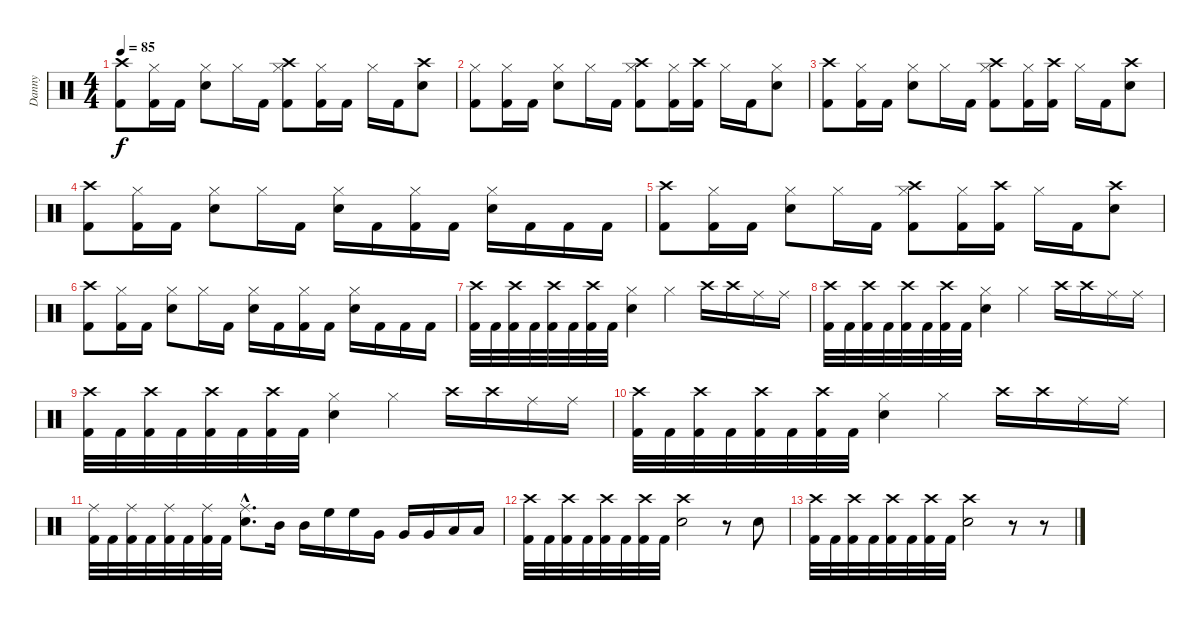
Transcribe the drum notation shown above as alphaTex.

\track ("Danny" "Danny") {instrument percussion}
\staff {score}
\articulation defaults
\ts (4 4)
\tempo 85
\clef neutral
\ks c
("Crash high (hit)" "Kick (hit) 2").8{dy f} ("Hi-Hat (closed)" "Kick (hit) 2").16 "Kick (hit) 2".16 ("Hi-Hat (closed)" "Snare (hit) 2").8 "Hi-Hat (closed)".16 "Kick (hit) 2".16 ("Crash high (hit)" "Hi-Hat (closed)" "Kick (hit) 2").8 ("Hi-Hat (closed)" "Kick (hit) 2").16 "Kick (hit) 2".16 "Hi-Hat (closed)".16 "Kick (hit) 2".16 ("Crash high (hit)" "Snare (hit) 2").8 |
("Hi-Hat (closed)" "Kick (hit) 2").8 ("Hi-Hat (closed)" "Kick (hit) 2").16 "Kick (hit) 2".16 ("Hi-Hat (closed)" "Snare (hit) 2").8 "Hi-Hat (closed)".16 "Kick (hit) 2".16 ("Crash high (hit)" "Hi-Hat (closed)" "Kick (hit) 2").8 ("Hi-Hat (closed)" "Kick (hit) 2").16 ("Crash high (hit)" "Kick (hit) 2").16 "Hi-Hat (closed)".16 "Kick (hit) 2".16 ("Hi-Hat (closed)" "Snare (hit) 2").8 |
("Crash high (hit)" "Kick (hit) 2").8 ("Hi-Hat (closed)" "Kick (hit) 2").16 "Kick (hit) 2".16 ("Hi-Hat (closed)" "Snare (hit) 2").8 "Hi-Hat (closed)".16 "Kick (hit) 2".16 ("Crash high (hit)" "Hi-Hat (closed)" "Kick (hit) 2").8 ("Hi-Hat (closed)" "Kick (hit) 2").16 ("Crash high (hit)" "Kick (hit) 2").16 "Hi-Hat (closed)".16 "Kick (hit) 2".16 ("Crash high (hit)" "Snare (hit) 2").8 |
("Crash high (hit)" "Kick (hit) 2").8 ("Hi-Hat (closed)" "Kick (hit) 2").16 "Kick (hit) 2".16 ("Hi-Hat (closed)" "Snare (hit) 2").8 "Hi-Hat (closed)".16 "Kick (hit) 2".16 ("Hi-Hat (closed)" "Snare (hit) 2").16 "Kick (hit) 2".16 ("Hi-Hat (closed)" "Kick (hit) 2").16 "Kick (hit) 2".16 ("Hi-Hat (closed)" "Snare (hit) 2").16 "Kick (hit) 2".16 "Kick (hit) 2".16 "Kick (hit) 2".16 |
("Crash high (hit)" "Kick (hit) 2").8 ("Hi-Hat (closed)" "Kick (hit) 2").16 "Kick (hit) 2".16 ("Hi-Hat (closed)" "Snare (hit) 2").8 "Hi-Hat (closed)".16 "Kick (hit) 2".16 ("Crash high (hit)" "Hi-Hat (closed)" "Kick (hit) 2").8 ("Hi-Hat (closed)" "Kick (hit) 2").16 ("Crash high (hit)" "Kick (hit) 2").16 "Hi-Hat (closed)".16 "Kick (hit) 2".16 ("Crash high (hit)" "Snare (hit) 2").8 |
("Crash high (hit)" "Kick (hit) 2").8 ("Hi-Hat (closed)" "Kick (hit) 2").16 "Kick (hit) 2".16 ("Hi-Hat (closed)" "Snare (hit) 2").8 "Hi-Hat (closed)".16 "Kick (hit) 2".16 ("Hi-Hat (closed)" "Snare (hit) 2").16 "Kick (hit) 2".16 ("Hi-Hat (closed)" "Kick (hit) 2").16 "Kick (hit) 2".16 ("Hi-Hat (closed)" "Snare (hit) 2").16 "Kick (hit) 2".16 "Kick (hit) 2".16 "Kick (hit) 2".16 |
("Crash high (hit)" "Kick (hit) 2").32 "Kick (hit) 2".32 ("Crash high (hit)" "Kick (hit) 2").32 "Kick (hit) 2".32 ("Crash high (hit)" "Kick (hit) 2").32 "Kick (hit) 2".32 ("Crash high (hit)" "Kick (hit) 2").32 "Kick (hit) 2".32 ("Hi-Hat (closed)" "Snare (hit) 2").4 "Hi-Hat (closed)".4 "Crash high (hit)".16 "Crash high (hit)".16 "Ride (middle)".16 "Ride (middle)".16 |
("Crash high (hit)" "Kick (hit) 2").32 "Kick (hit) 2".32 ("Crash high (hit)" "Kick (hit) 2").32 "Kick (hit) 2".32 ("Crash high (hit)" "Kick (hit) 2").32 "Kick (hit) 2".32 ("Crash high (hit)" "Kick (hit) 2").32 "Kick (hit) 2".32 ("Hi-Hat (closed)" "Snare (hit) 2").4 "Hi-Hat (closed)".4 "Crash high (hit)".16 "Crash high (hit)".16 "Ride (middle)".16 "Ride (middle)".16 |
("Crash high (hit)" "Kick (hit) 2").32 "Kick (hit) 2".32 ("Crash high (hit)" "Kick (hit) 2").32 "Kick (hit) 2".32 ("Crash high (hit)" "Kick (hit) 2").32 "Kick (hit) 2".32 ("Crash high (hit)" "Kick (hit) 2").32 "Kick (hit) 2".32 ("Hi-Hat (closed)" "Snare (hit) 2").4 "Hi-Hat (closed)".4 "Crash high (hit)".16 "Crash high (hit)".16 "Ride (middle)".16 "Ride (middle)".16 |
("Crash high (hit)" "Kick (hit) 2").32 "Kick (hit) 2".32 ("Crash high (hit)" "Kick (hit) 2").32 "Kick (hit) 2".32 ("Crash high (hit)" "Kick (hit) 2").32 "Kick (hit) 2".32 ("Crash high (hit)" "Kick (hit) 2").32 "Kick (hit) 2".32 ("Hi-Hat (closed)" "Snare (hit) 2").4 "Hi-Hat (closed)".4 "Crash high (hit)".16 "Crash high (hit)".16 "Ride (middle)".16 "Ride (middle)".16 |
("Ride (middle)" "Kick (hit) 2").32 "Kick (hit) 2".32 ("Ride (middle)" "Kick (hit) 2").32 "Kick (hit) 2".32 ("Ride (middle)" "Kick (hit) 2").32 "Kick (hit) 2".32 ("Ride (middle)" "Kick (hit) 2").32 "Kick (hit) 2".32 ("Ride (middle)"{hac} "Snare (hit) 2"{hac}).8{d} "Mid Tom (hit)".16 "Mid Tom (hit)".16 "High Floor Tom (hit)".16 "High Floor Tom (hit)".16 "Very Low Tom (hit)".16 "Very Low Tom (hit)".16 "Very Low Tom (hit)".16 "Low Floor Tom (hit)".16 "Low Floor Tom (hit)".16 |
("Crash high (hit)" "Kick (hit) 2").32 "Kick (hit) 2".32 ("Crash high (hit)" "Kick (hit) 2").32 "Kick (hit) 2".32 ("Crash high (hit)" "Kick (hit) 2").32 "Kick (hit) 2".32 ("Crash high (hit)" "Kick (hit) 2").32 "Kick (hit) 2".32 ("Crash high (hit)" "Snare (hit) 2").2 r.8 "Snare (hit) 2".8 |
("Crash high (hit)" "Kick (hit) 2").32 "Kick (hit) 2".32 ("Crash high (hit)" "Kick (hit) 2").32 "Kick (hit) 2".32 ("Crash high (hit)" "Kick (hit) 2").32 "Kick (hit) 2".32 ("Crash high (hit)" "Kick (hit) 2").32 "Kick (hit) 2".32 ("Crash high (hit)" "Snare (hit) 2").2 r.8 r.8
